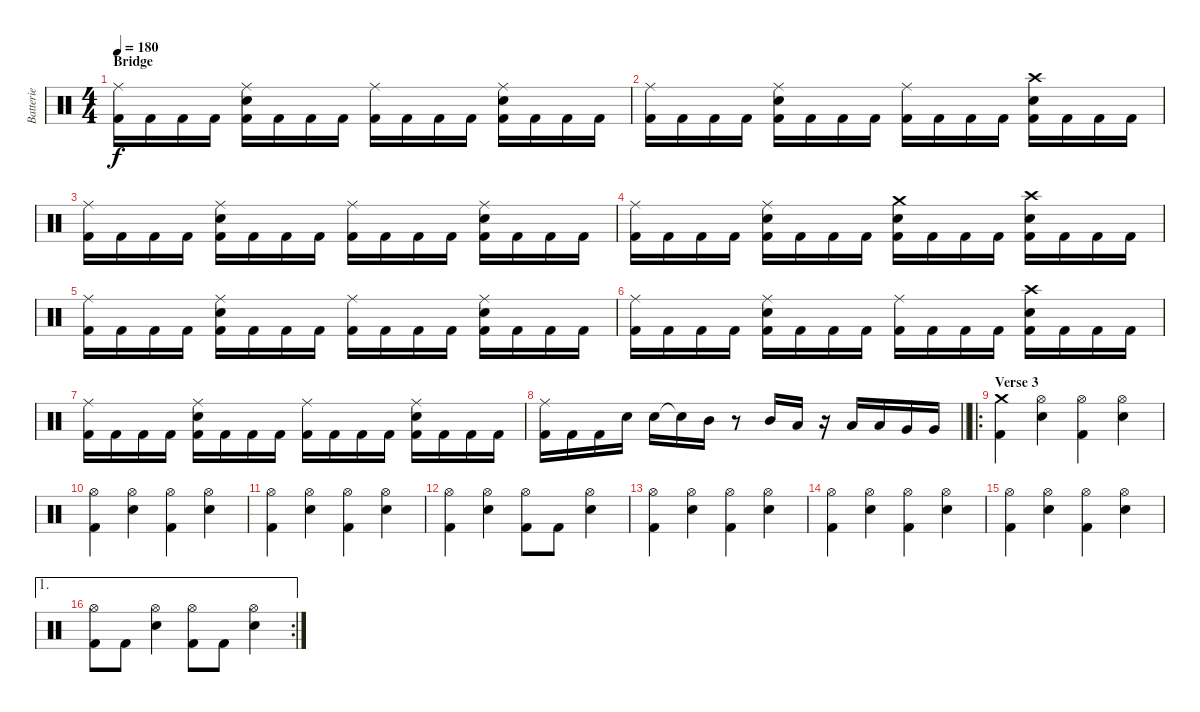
\track ("Batterie" "Batterie") {instrument percussion}
\staff {score}
\articulation defaults
\ts (4 4)
\section ("" "Bridge")
\tempo 180
\clef neutral
\ks c
("Ride (middle)" "Kick (hit) 2").16{dy f} "Kick (hit) 2".16 "Kick (hit) 2".16 "Kick (hit) 2".16 ("Ride (middle)" "Electric Snare (hit)" "Kick (hit) 2").16 "Kick (hit) 2".16 "Kick (hit) 2".16 "Kick (hit) 2".16 ("Ride (middle)" "Kick (hit) 2").16 "Kick (hit) 2".16 "Kick (hit) 2".16 "Kick (hit) 2".16 ("Ride (middle)" "Electric Snare (hit)" "Kick (hit) 2").16 "Kick (hit) 2".16 "Kick (hit) 2".16 "Kick (hit) 2".16 |
("Ride (middle)" "Kick (hit) 2").16 "Kick (hit) 2".16 "Kick (hit) 2".16 "Kick (hit) 2".16 ("Ride (middle)" "Electric Snare (hit)" "Kick (hit) 2").16 "Kick (hit) 2".16 "Kick (hit) 2".16 "Kick (hit) 2".16 ("Ride (middle)" "Kick (hit) 2").16 "Kick (hit) 2".16 "Kick (hit) 2".16 "Kick (hit) 2".16 ("Crash high (hit)" "Electric Snare (hit)" "Kick (hit) 2").16 "Kick (hit) 2".16 "Kick (hit) 2".16 "Kick (hit) 2".16 |
("Ride (middle)" "Kick (hit) 2").16 "Kick (hit) 2".16 "Kick (hit) 2".16 "Kick (hit) 2".16 ("Ride (middle)" "Electric Snare (hit)" "Kick (hit) 2").16 "Kick (hit) 2".16 "Kick (hit) 2".16 "Kick (hit) 2".16 ("Ride (middle)" "Kick (hit) 2").16 "Kick (hit) 2".16 "Kick (hit) 2".16 "Kick (hit) 2".16 ("Ride (middle)" "Electric Snare (hit)" "Kick (hit) 2").16 "Kick (hit) 2".16 "Kick (hit) 2".16 "Kick (hit) 2".16 |
("Ride (middle)" "Kick (hit) 2").16 "Kick (hit) 2".16 "Kick (hit) 2".16 "Kick (hit) 2".16 ("Ride (middle)" "Electric Snare (hit)" "Kick (hit) 2").16 "Kick (hit) 2".16 "Kick (hit) 2".16 "Kick (hit) 2".16 ("Crash medium (hit)" "Electric Snare (hit)" "Kick (hit) 2").16 "Kick (hit) 2".16 "Kick (hit) 2".16 "Kick (hit) 2".16 ("Crash high (hit)" "Electric Snare (hit)" "Kick (hit) 2").16 "Kick (hit) 2".16 "Kick (hit) 2".16 "Kick (hit) 2".16 |
("Ride (middle)" "Kick (hit) 2").16 "Kick (hit) 2".16 "Kick (hit) 2".16 "Kick (hit) 2".16 ("Ride (middle)" "Electric Snare (hit)" "Kick (hit) 2").16 "Kick (hit) 2".16 "Kick (hit) 2".16 "Kick (hit) 2".16 ("Ride (middle)" "Kick (hit) 2").16 "Kick (hit) 2".16 "Kick (hit) 2".16 "Kick (hit) 2".16 ("Ride (middle)" "Electric Snare (hit)" "Kick (hit) 2").16 "Kick (hit) 2".16 "Kick (hit) 2".16 "Kick (hit) 2".16 |
("Ride (middle)" "Kick (hit) 2").16 "Kick (hit) 2".16 "Kick (hit) 2".16 "Kick (hit) 2".16 ("Ride (middle)" "Electric Snare (hit)" "Kick (hit) 2").16 "Kick (hit) 2".16 "Kick (hit) 2".16 "Kick (hit) 2".16 ("Ride (middle)" "Kick (hit) 2").16 "Kick (hit) 2".16 "Kick (hit) 2".16 "Kick (hit) 2".16 ("Crash high (hit)" "Electric Snare (hit)" "Kick (hit) 2").16 "Kick (hit) 2".16 "Kick (hit) 2".16 "Kick (hit) 2".16 |
("Ride (middle)" "Kick (hit) 2").16 "Kick (hit) 2".16 "Kick (hit) 2".16 "Kick (hit) 2".16 ("Ride (middle)" "Electric Snare (hit)" "Kick (hit) 2").16 "Kick (hit) 2".16 "Kick (hit) 2".16 "Kick (hit) 2".16 ("Ride (middle)" "Kick (hit) 2").16 "Kick (hit) 2".16 "Kick (hit) 2".16 "Kick (hit) 2".16 ("Ride (middle)" "Electric Snare (hit)" "Kick (hit) 2").16 "Kick (hit) 2".16 "Kick (hit) 2".16 "Kick (hit) 2".16 |
\barLineRight lightlight
("Ride (middle)" "Kick (hit) 2").16 "Kick (hit) 2".16 "Kick (hit) 2".16 "Electric Snare (hit)".16 "Electric Snare (hit)".16 "Electric Snare (hit)"{t}.16 "Mid Tom (hit)".16 r.8 "Mid Tom (hit)".16 "Low Tom (hit)".16 r.16 "Low Tom (hit)".16 "Low Tom (hit)".16 "Very Low Tom (hit)".16 "Very Low Tom (hit)".16 |
\ro
\section ("" "Verse 3")
("Crash medium (hit)" "Kick (hit) 2").4 ("Hi-Hat (open)" "Electric Snare (hit)").4 ("Hi-Hat (open)" "Kick (hit) 2").4 ("Hi-Hat (open)" "Electric Snare (hit)").4 |
("Hi-Hat (open)" "Kick (hit) 2").4 ("Hi-Hat (open)" "Electric Snare (hit)").4 ("Hi-Hat (open)" "Kick (hit) 2").4 ("Hi-Hat (open)" "Electric Snare (hit)").4 |
("Hi-Hat (open)" "Kick (hit) 2").4 ("Hi-Hat (open)" "Electric Snare (hit)").4 ("Hi-Hat (open)" "Kick (hit) 2").4 ("Hi-Hat (open)" "Electric Snare (hit)").4 |
("Hi-Hat (open)" "Kick (hit) 2").4 ("Hi-Hat (open)" "Electric Snare (hit)").4 ("Hi-Hat (open)" "Kick (hit) 2").8 "Kick (hit) 2".8 ("Hi-Hat (open)" "Electric Snare (hit)").4 |
("Hi-Hat (open)" "Kick (hit) 2").4 ("Hi-Hat (open)" "Electric Snare (hit)").4 ("Hi-Hat (open)" "Kick (hit) 2").4 ("Hi-Hat (open)" "Electric Snare (hit)").4 |
("Hi-Hat (open)" "Kick (hit) 2").4 ("Hi-Hat (open)" "Electric Snare (hit)").4 ("Hi-Hat (open)" "Kick (hit) 2").4 ("Hi-Hat (open)" "Electric Snare (hit)").4 |
("Hi-Hat (open)" "Kick (hit) 2").4 ("Hi-Hat (open)" "Electric Snare (hit)").4 ("Hi-Hat (open)" "Kick (hit) 2").4 ("Hi-Hat (open)" "Electric Snare (hit)").4 |
\ae 1
\rc 2
("Hi-Hat (open)" "Kick (hit) 2").8 "Kick (hit) 2".8 ("Hi-Hat (open)" "Electric Snare (hit)").4 ("Hi-Hat (open)" "Kick (hit) 2").8 "Kick (hit) 2".8 ("Hi-Hat (open)" "Electric Snare (hit)").4
